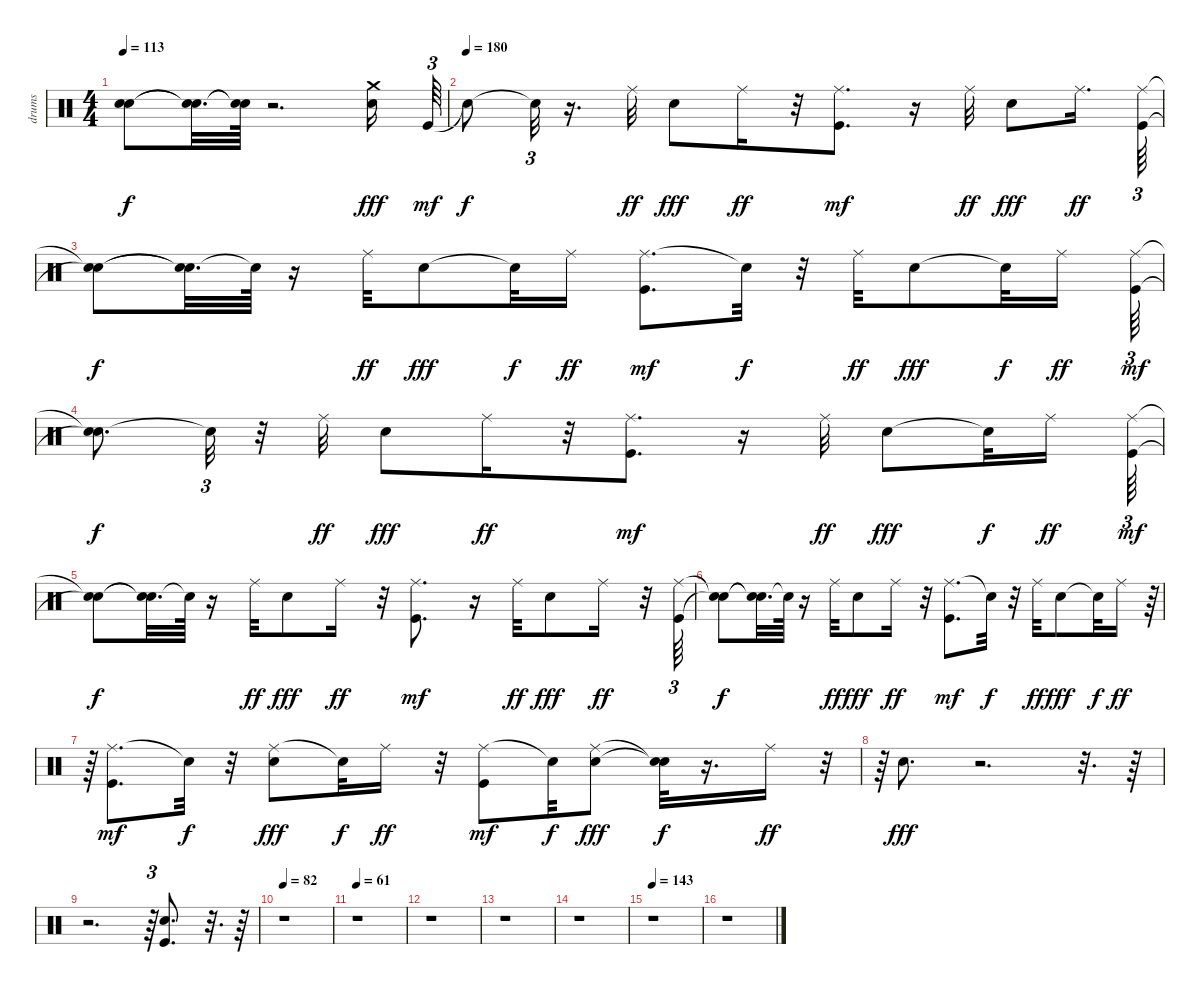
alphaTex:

\track ("drums" "drums") {instrument percussion}
\staff {score}
\articulation defaults
\ts (4 4)
\tempo 113
\clef neutral
\ks c
("Snare (hit)"{t} "Snare (hit)"{t}).8{dy f} ("Snare (hit)"{t} "Snare (hit)"{t}).32{d} ("Snare (hit)"{t} "Snare (hit)"{t}).64 r.2{d} ("Crash medium (hit)" "Electric Snare (hit)").16{dy fff} "Kick (hit)".64{tu (3 2) dy mf} |
\tempo (180)
"Snare (hit)"{t}.8{dy f} "Snare (hit)"{t}.32{tu (3 2)} r.16{d} "Ride (middle)".32{dy ff} "Electric Snare (hit)".8{dy fff} "Ride (middle)".16{dy ff} r.32 ("Ride (middle)" "Kick (hit)").8{d dy mf} r.16 "Ride (middle)".32{dy ff} "Electric Snare (hit)".8{dy fff} "Ride (middle)".16{d dy ff} ("Kick (hit)" "Ride (middle)").64{tu (3 2)} |
("Snare (hit)"{t} "Snare (hit)"{t}).8{dy f} ("Snare (hit)"{t} "Snare (hit)"{t}).32{d} "Snare (hit)"{t}.64 r.16 "Ride (middle)".32{dy ff} "Electric Snare (hit)".8{dy fff} "Snare (hit)"{t}.32{dy f} "Ride (middle)".16{dy ff} ("Ride (middle)" "Kick (hit)").8{d dy mf} "Snare (hit)"{t}.32{dy f} r.32 "Ride (middle)".32{dy ff} "Electric Snare (hit)".8{dy fff} "Snare (hit)"{t}.32{dy f} "Ride (middle)".16{dy ff} ("Ride (middle)" "Kick (hit)").64{tu (3 2) dy mf} |
("Snare (hit)"{t} "Snare (hit)"{t}).8{d dy f} "Snare (hit)"{t}.32{tu (3 2)} r.32 "Ride (middle)".32{dy ff} "Electric Snare (hit)".8{dy fff} "Ride (middle)".16{dy ff} r.32 ("Ride (middle)" "Kick (hit)").8{d dy mf} r.16 "Ride (middle)".32{dy ff} "Electric Snare (hit)".8{dy fff} "Snare (hit)"{t}.32{dy f} "Ride (middle)".16{dy ff} ("Ride (middle)" "Kick (hit)").64{tu (3 2) dy mf} |
("Snare (hit)"{t} "Snare (hit)"{t}).8{dy f} ("Snare (hit)"{t} "Snare (hit)"{t}).32{d} "Snare (hit)"{t}.64 r.16 "Ride (middle)".32{dy ff} "Electric Snare (hit)".8{dy fff} "Ride (middle)".16{dy ff} r.32 ("Ride (middle)" "Kick (hit)").8{d dy mf} r.16 "Ride (middle)".32{dy ff} "Electric Snare (hit)".8{dy fff} "Ride (middle)".16{dy ff} r.32 ("Kick (hit)" "Ride (middle)").64{tu (3 2)} |
("Snare (hit)"{t} "Snare (hit)"{t}).8{dy f} ("Snare (hit)"{t} "Snare (hit)"{t}).32{d} "Snare (hit)"{t}.64 r.16 "Ride (middle)".32{dy ff} "Electric Snare (hit)".8{dy fff} "Ride (middle)".16{dy ff} r.32 ("Ride (middle)" "Kick (hit)").8{d dy mf} "Snare (hit)"{t}.32{dy f} r.32 "Ride (middle)".32{dy ff} "Electric Snare (hit)".8{dy fff} "Snare (hit)"{t}.32{dy f} "Ride (middle)".16{dy ff} r.64{tu (3 2)} |
r.64{tu (3 2)} ("Ride (middle)" "Kick (hit)").8{d dy mf} "Snare (hit)"{t}.32{dy f} r.32 ("Ride (middle)" "Electric Snare (hit)").8{dy fff} "Snare (hit)"{t}.32{dy f} "Ride (middle)".16{dy ff} r.32 ("Ride (middle)" "Kick (hit)").8{dy mf} "Snare (hit)"{t}.32{dy f} ("Ride (middle)" "Electric Snare (hit)").8{dy fff} ("Snare (hit)"{t} "Snare (hit)"{t}).32{dy f} r.16{d} "Ride (middle)".16{dy ff} r.32{tu (3 2)} |
r.64{tu (3 2)} "Electric Snare (hit)".8{d dy fff} r.2{d} r.32{d} r.64 |
r.2{d} r.64{tu (3 2)} ("Kick (hit)" "Electric Snare (hit)").8{d} r.32{d} r.64 |
\tempo 82
r.1 |
\tempo 61
r.1 |
r.1 |
r.1 |
r.1 |
\tempo 143
r.1 |
r.1
